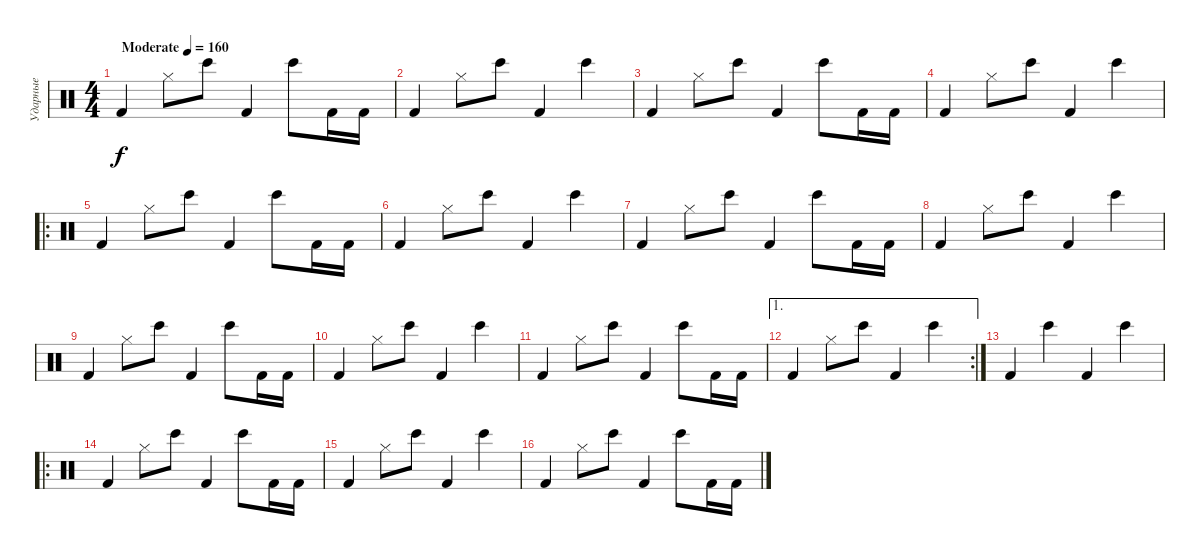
\track ("Ударные" "Ударные") {instrument percussion}
\staff {score}
\articulation defaults
\ts (4 4)
\tempo (160 "Moderate")
\clef neutral
\ks c "Kick (hit) 2".4{dy f} "Hi-Hat (closed)".8 "Bongo High (hit)".8 "Kick (hit) 2".4 "Bongo High (hit)".8 "Kick (hit) 2".16 "Kick (hit) 2".16
|
"Kick (hit) 2".4 "Hi-Hat (closed)".8 "Bongo High (hit)".8 "Kick (hit) 2".4 "Bongo High (hit)".4 |
"Kick (hit) 2".4 "Hi-Hat (closed)".8 "Bongo High (hit)".8 "Kick (hit) 2".4 "Bongo High (hit)".8 "Kick (hit) 2".16 "Kick (hit) 2".16 |
"Kick (hit) 2".4 "Hi-Hat (closed)".8 "Bongo High (hit)".8 "Kick (hit) 2".4 "Bongo High (hit)".4 |
\ro "Kick (hit) 2".4 "Hi-Hat (closed)".8 "Bongo High (hit)".8 "Kick (hit) 2".4 "Bongo High (hit)".8 "Kick (hit) 2".16 "Kick (hit) 2".16
|
"Kick (hit) 2".4 "Hi-Hat (closed)".8 "Bongo High (hit)".8 "Kick (hit) 2".4 "Bongo High (hit)".4 |
"Kick (hit) 2".4 "Hi-Hat (closed)".8 "Bongo High (hit)".8 "Kick (hit) 2".4 "Bongo High (hit)".8 "Kick (hit) 2".16 "Kick (hit) 2".16 |
"Kick (hit) 2".4 "Hi-Hat (closed)".8 "Bongo High (hit)".8 "Kick (hit) 2".4 "Bongo High (hit)".4 |
"Kick (hit) 2".4 "Hi-Hat (closed)".8 "Bongo High (hit)".8 "Kick (hit) 2".4 "Bongo High (hit)".8 "Kick (hit) 2".16 "Kick (hit) 2".16 |
"Kick (hit) 2".4 "Hi-Hat (closed)".8 "Bongo High (hit)".8 "Kick (hit) 2".4 "Bongo High (hit)".4 |
"Kick (hit) 2".4 "Hi-Hat (closed)".8 "Bongo High (hit)".8 "Kick (hit) 2".4 "Bongo High (hit)".8 "Kick (hit) 2".16 "Kick (hit) 2".16 |
\ae 1
\rc 2 "Kick (hit) 2".4 "Hi-Hat (closed)".8 "Bongo High (hit)".8 "Kick (hit) 2".4 "Bongo High (hit)".4
|
"Kick (hit) 2".4 "Bongo High (hit)".4 "Kick (hit) 2".4 "Bongo High (hit)".4 |
\ro "Kick (hit) 2".4 "Hi-Hat (closed)".8 "Bongo High (hit)".8 "Kick (hit) 2".4 "Bongo High (hit)".8 "Kick (hit) 2".16 "Kick (hit) 2".16
|
"Kick (hit) 2".4 "Hi-Hat (closed)".8 "Bongo High (hit)".8 "Kick (hit) 2".4 "Bongo High (hit)".4 |
"Kick (hit) 2".4 "Hi-Hat (closed)".8 "Bongo High (hit)".8 "Kick (hit) 2".4 "Bongo High (hit)".8 "Kick (hit) 2".16 "Kick (hit) 2".16
